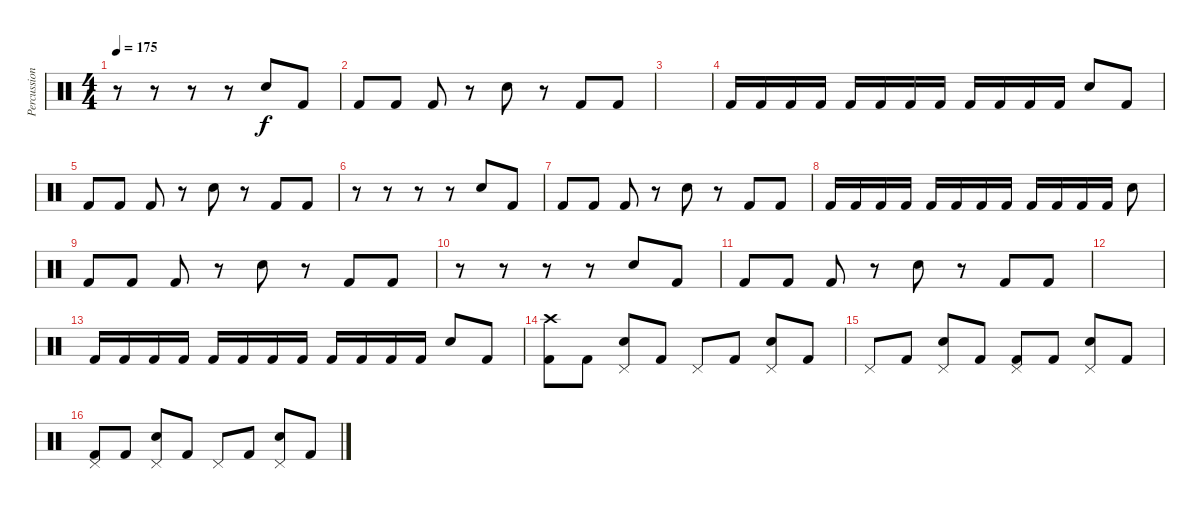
\track ("Percussion" "Percussion") {instrument percussion}
\staff {score}
\articulation defaults
\ts (4 4)
\tempo 175
\clef neutral
\ks c
r.8{dy f} r.8 r.8 r.8 "Electric Snare (hit)".8 "Kick (hit) 2".8 |
"Kick (hit) 2".8 "Kick (hit) 2".8 "Kick (hit) 2".8 r.8 "Electric Snare (hit)".8 r.8 "Kick (hit) 2".8 "Kick (hit) 2".8 |
|
"Kick (hit) 2".16 "Kick (hit) 2".16 "Kick (hit) 2".16 "Kick (hit) 2".16 "Kick (hit) 2".16 "Kick (hit) 2".16 "Kick (hit) 2".16 "Kick (hit) 2".16 "Kick (hit) 2".16 "Kick (hit) 2".16 "Kick (hit) 2".16 "Kick (hit) 2".16 "Electric Snare (hit)".8 "Kick (hit) 2".8 |
"Kick (hit) 2".8 "Kick (hit) 2".8 "Kick (hit) 2".8 r.8 "Electric Snare (hit)".8 r.8 "Kick (hit) 2".8 "Kick (hit) 2".8 |
r.8 r.8 r.8 r.8 "Electric Snare (hit)".8 "Kick (hit) 2".8 |
"Kick (hit) 2".8 "Kick (hit) 2".8 "Kick (hit) 2".8 r.8 "Electric Snare (hit)".8 r.8 "Kick (hit) 2".8 "Kick (hit) 2".8 |
"Kick (hit) 2".16 "Kick (hit) 2".16 "Kick (hit) 2".16 "Kick (hit) 2".16 "Kick (hit) 2".16 "Kick (hit) 2".16 "Kick (hit) 2".16 "Kick (hit) 2".16 "Kick (hit) 2".16 "Kick (hit) 2".16 "Kick (hit) 2".16 "Kick (hit) 2".16 "Electric Snare (hit)".8 |
"Kick (hit) 2".8 "Kick (hit) 2".8 "Kick (hit) 2".8 r.8 "Electric Snare (hit)".8 r.8 "Kick (hit) 2".8 "Kick (hit) 2".8 |
r.8 r.8 r.8 r.8 "Electric Snare (hit)".8 "Kick (hit) 2".8 |
"Kick (hit) 2".8 "Kick (hit) 2".8 "Kick (hit) 2".8 r.8 "Electric Snare (hit)".8 r.8 "Kick (hit) 2".8 "Kick (hit) 2".8 |
|
"Kick (hit) 2".16 "Kick (hit) 2".16 "Kick (hit) 2".16 "Kick (hit) 2".16 "Kick (hit) 2".16 "Kick (hit) 2".16 "Kick (hit) 2".16 "Kick (hit) 2".16 "Kick (hit) 2".16 "Kick (hit) 2".16 "Kick (hit) 2".16 "Kick (hit) 2".16 "Electric Snare (hit)".8 "Kick (hit) 2".8 |
("Crash high (hit)" "Kick (hit) 2").8 "Kick (hit) 2".8 ("Pedal Hi-Hat (hit)" "Electric Snare (hit)").8 "Kick (hit) 2".8 "Pedal Hi-Hat (hit)".8 "Kick (hit) 2".8 ("Pedal Hi-Hat (hit)" "Electric Snare (hit)").8 "Kick (hit) 2".8 |
"Pedal Hi-Hat (hit)".8 "Kick (hit) 2".8 ("Pedal Hi-Hat (hit)" "Electric Snare (hit)").8 "Kick (hit) 2".8 ("Pedal Hi-Hat (hit)" "Kick (hit) 2").8 "Kick (hit) 2".8 ("Pedal Hi-Hat (hit)" "Electric Snare (hit)").8 "Kick (hit) 2".8 |
("Pedal Hi-Hat (hit)" "Kick (hit) 2").8 "Kick (hit) 2".8 ("Pedal Hi-Hat (hit)" "Electric Snare (hit)").8 "Kick (hit) 2".8 "Pedal Hi-Hat (hit)".8 "Kick (hit) 2".8 ("Pedal Hi-Hat (hit)" "Electric Snare (hit)").8 "Kick (hit) 2".8
